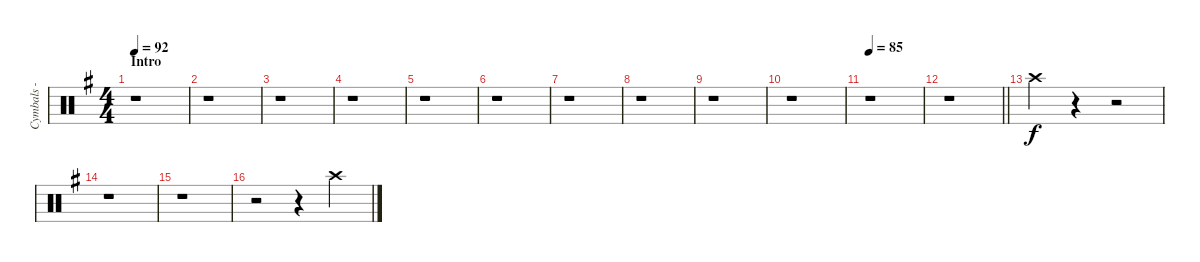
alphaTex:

\track ("Cymbals - crash" "Cymbals - ") {instrument percussion}
\staff {score}
\articulation defaults
\ts (4 4)
\section ("" "Intro")
\tempo 92
\clef neutral
\ks g
r.1{dy f} |
r.1 |
r.1 |
r.1 |
r.1 |
r.1 |
r.1 |
r.1 |
r.1 |
r.1 |
\tempo 85
r.1 |
\barLineRight lightlight
r.1 |
"Crash high (hit)".4{volume 9} r.4 r.2 |
r.1 |
r.1 |
r.2 r.4 "Crash high (hit)".4
